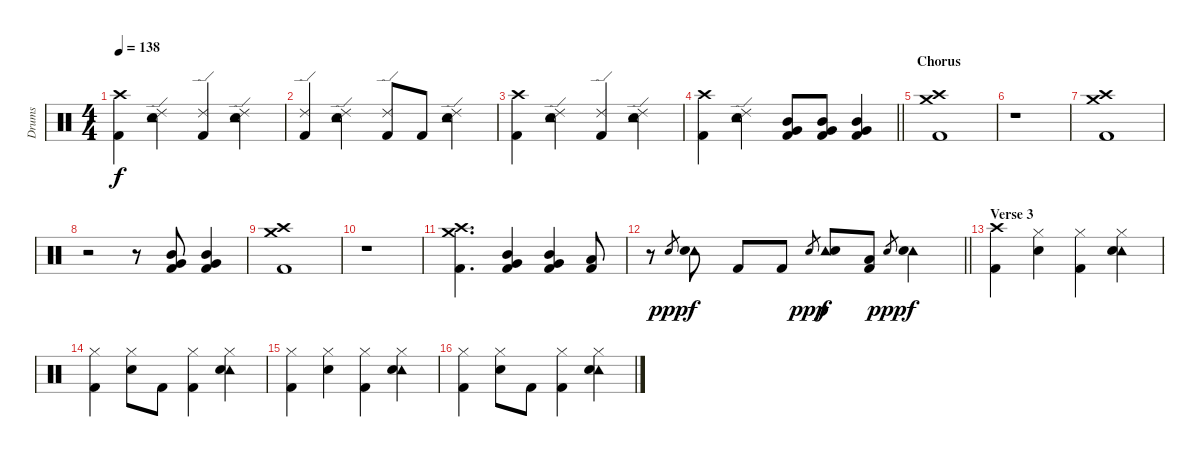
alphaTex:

\track ("Drums" "Drums") {instrument percussion}
\staff {score}
\articulation defaults
\ts (4 4)
\tempo 138
\clef neutral
\ks c
("Crash high (hit)" "Kick (hit) 2").4{dy f} ("Tambourine (hit)" "Ride (edge) 2" "Snare (hit) 2").4 ("Ride (edge) 2" "Kick (hit) 2").4 ("Tambourine (hit)" "Ride (edge) 2" "Snare (hit) 2").4 |
("Ride (edge) 2" "Kick (hit) 2").4 ("Tambourine (hit)" "Ride (edge) 2" "Snare (hit) 2").4 ("Ride (edge) 2" "Kick (hit) 2").8 "Kick (hit) 2".8 ("Tambourine (hit)" "Ride (edge) 2" "Snare (hit) 2").4 |
("Crash high (hit)" "Kick (hit) 2").4 ("Tambourine (hit)" "Ride (edge) 2" "Snare (hit) 2").4 ("Ride (edge) 2" "Kick (hit) 2").4 ("Tambourine (hit)" "Ride (edge) 2" "Snare (hit) 2").4 |
\barLineRight lightlight
("Crash high (hit)" "Kick (hit) 2").4 ("Tambourine (hit)" "Ride (edge) 2" "Snare (hit) 2").4 ("Mid Tom (hit)" "Very Low Tom (hit)" "Kick (hit) 2").8 ("Mid Tom (hit)" "Very Low Tom (hit)" "Kick (hit) 2").8 ("Mid Tom (hit)" "Very Low Tom (hit)" "Kick (hit) 2").4 |
\section ("" "Chorus")
("Crash high (hit)" "Crash medium (hit)" "Kick (hit) 2").1 |
r.1 |
("Crash high (hit)" "Crash medium (hit)" "Kick (hit) 2").1 |
r.2 r.8 ("Mid Tom (hit)" "Very Low Tom (hit)" "Kick (hit) 2").8 ("Mid Tom (hit)" "Very Low Tom (hit)" "Kick (hit) 2").4 |
("Crash high (hit)" "Crash medium (hit)" "Kick (hit) 2").1 |
r.1 |
("Crash high (hit)" "Crash medium (hit)" "Kick (hit) 2").4{d} ("Mid Tom (hit)" "Very Low Tom (hit)" "Kick (hit) 2").4 ("Mid Tom (hit)" "Very Low Tom (hit)" "Kick (hit) 2").4 ("Low Tom (hit)" "Kick (hit) 2").8 |
\barLineRight lightlight
r.8 "Snare (hit) 2".8{gr dy ppp} ("Tambourine (hit)" "Snare (hit) 2").8{dy f} "Kick (hit) 2".8 "Kick (hit) 2".8 "Snare (hit) 2".8{gr dy ppp} ("Tambourine (hit)" "Snare (hit) 2").8{dy f} ("Low Tom (hit)" "Kick (hit) 2").8 "Snare (hit) 2".8{gr dy ppp} ("Tambourine (hit)" "Snare (hit) 2").4{dy f} |
\section ("" "Verse 3")
("Crash high (hit)" "Kick (hit) 2").4 ("Hi-Hat (closed)" "Snare (hit) 2").4 ("Hi-Hat (closed)" "Kick (hit) 2").4 ("Tambourine (hit)" "Hi-Hat (closed)" "Snare (hit) 2").4 |
("Hi-Hat (closed)" "Kick (hit) 2").4 ("Hi-Hat (closed)" "Snare (hit) 2").8 "Kick (hit) 2".8 ("Hi-Hat (closed)" "Kick (hit) 2").4 ("Tambourine (hit)" "Hi-Hat (closed)" "Snare (hit) 2").4 |
("Hi-Hat (closed)" "Kick (hit) 2").4 ("Hi-Hat (closed)" "Snare (hit) 2").4 ("Hi-Hat (closed)" "Kick (hit) 2").4 ("Tambourine (hit)" "Hi-Hat (closed)" "Snare (hit) 2").4 |
("Hi-Hat (closed)" "Kick (hit) 2").4 ("Hi-Hat (closed)" "Snare (hit) 2").8 "Kick (hit) 2".8 ("Hi-Hat (closed)" "Kick (hit) 2").4 ("Tambourine (hit)" "Hi-Hat (closed)" "Snare (hit) 2").4
